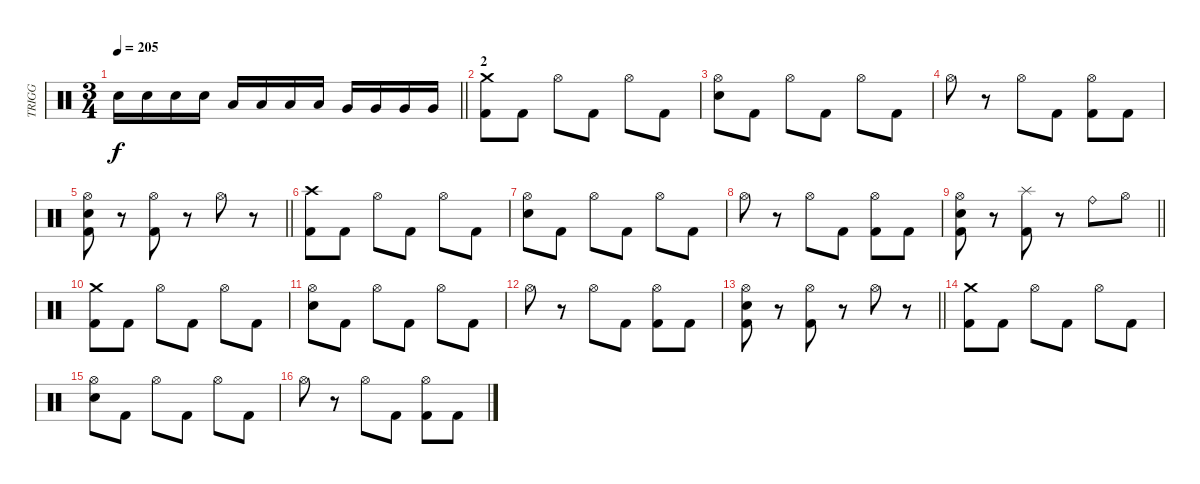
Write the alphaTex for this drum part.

\track ("TRIGG" "TRIGG") {instrument percussion}
\staff {score}
\articulation defaults
\ts (3 4)
\tempo 205
\clef neutral
\barLineRight lightlight
\ks c "Electric Snare (hit)".16{dy f} "Electric Snare (hit)".16 "Electric Snare (hit)".16 "Electric Snare (hit)".16 "Low Tom (hit)".16 "Low Tom (hit)".16 "Low Tom (hit)".16 "Low Tom (hit)".16 "Very Low Tom (hit)".16 "Very Low Tom (hit)".16 "Very Low Tom (hit)".16 "Very Low Tom (hit)".16
|
\section ("" "2")
("Crash medium (hit)" "Kick (hit) 2").8 "Kick (hit) 2".8 "Hi-Hat (open)".8 "Kick (hit) 2".8 "Hi-Hat (open)".8 "Kick (hit) 2".8 |
("Hi-Hat (open)" "Electric Snare (hit)").8 "Kick (hit) 2".8 "Hi-Hat (open)".8 "Kick (hit) 2".8 "Hi-Hat (open)".8 "Kick (hit) 2".8 |
"Hi-Hat (open)".8 r.8 "Hi-Hat (open)".8 "Kick (hit) 2".8 ("Hi-Hat (open)" "Kick (hit) 2").8 "Kick (hit) 2".8 |
\barLineRight lightlight
("Hi-Hat (open)" "Electric Snare (hit)" "Kick (hit) 2").8 r.8 ("Hi-Hat (open)" "Kick (hit) 2").8 r.8 "Hi-Hat (open)".8 r.8 |
("Crash high (hit)" "Kick (hit) 2").8 "Kick (hit) 2".8 "Hi-Hat (open)".8 "Kick (hit) 2".8 "Hi-Hat (open)".8 "Kick (hit) 2".8 |
("Hi-Hat (open)" "Electric Snare (hit)").8 "Kick (hit) 2".8 "Hi-Hat (open)".8 "Kick (hit) 2".8 "Hi-Hat (open)".8 "Kick (hit) 2".8 |
"Hi-Hat (open)".8 r.8 "Hi-Hat (open)".8 "Kick (hit) 2".8 ("Hi-Hat (open)" "Kick (hit) 2").8 "Kick (hit) 2".8 |
\barLineRight lightlight
("Hi-Hat (open)" "Electric Snare (hit)" "Kick (hit) 2").8 r.8 ("Splash (hit)" "Kick (hit) 2").8 r.8 "Ride (bell)".8 "Hi-Hat (open)".8 |
("Crash medium (hit)" "Kick (hit) 2").8 "Kick (hit) 2".8 "Hi-Hat (open)".8 "Kick (hit) 2".8 "Hi-Hat (open)".8 "Kick (hit) 2".8 |
("Hi-Hat (open)" "Electric Snare (hit)").8 "Kick (hit) 2".8 "Hi-Hat (open)".8 "Kick (hit) 2".8 "Hi-Hat (open)".8 "Kick (hit) 2".8 |
"Hi-Hat (open)".8 r.8 "Hi-Hat (open)".8 "Kick (hit) 2".8 ("Hi-Hat (open)" "Kick (hit) 2").8 "Kick (hit) 2".8 |
\barLineRight lightlight
("Hi-Hat (open)" "Electric Snare (hit)" "Kick (hit) 2").8 r.8 ("Hi-Hat (open)" "Kick (hit) 2").8 r.8 "Hi-Hat (open)".8 r.8 |
("Crash medium (hit)" "Kick (hit) 2").8 "Kick (hit) 2".8 "Hi-Hat (open)".8 "Kick (hit) 2".8 "Hi-Hat (open)".8 "Kick (hit) 2".8 |
("Hi-Hat (open)" "Electric Snare (hit)").8 "Kick (hit) 2".8 "Hi-Hat (open)".8 "Kick (hit) 2".8 "Hi-Hat (open)".8 "Kick (hit) 2".8 |
"Hi-Hat (open)".8 r.8 "Hi-Hat (open)".8 "Kick (hit) 2".8 ("Hi-Hat (open)" "Kick (hit) 2").8 "Kick (hit) 2".8
